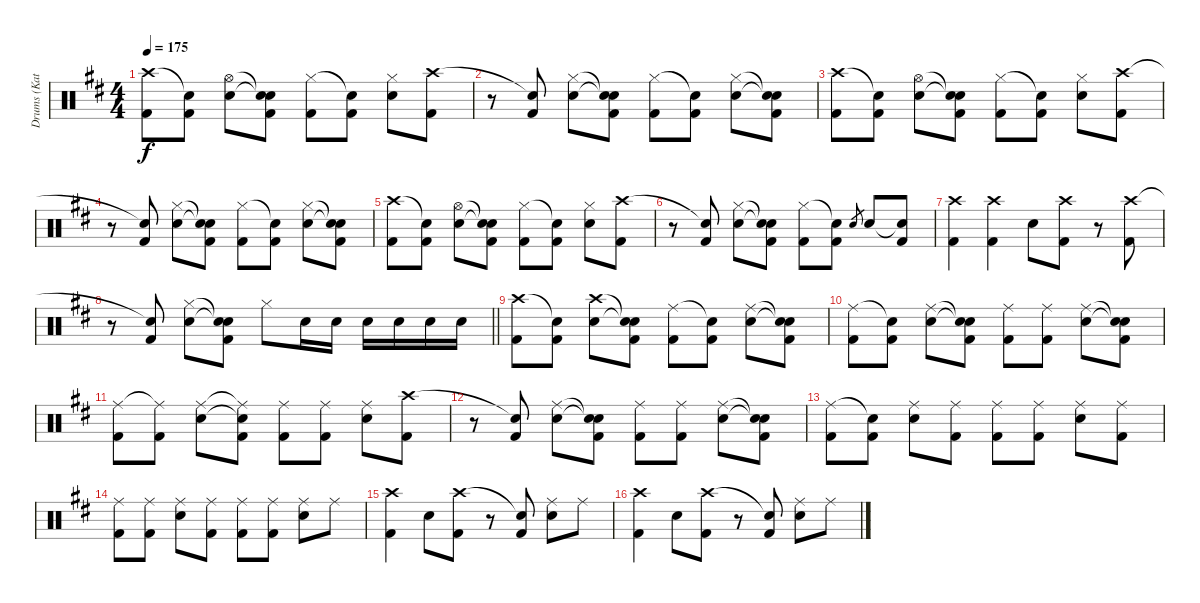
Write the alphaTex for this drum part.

\track ("Drums (Katsuji)" "Drums (Kat") {instrument percussion}
\staff {score}
\articulation defaults
\ts (4 4)
\tempo 175
\clef neutral
\ks d
("Crash high (hit)" "Kick (hit) 2").8{dy f} ("Snare (hit)"{t} "Kick (hit) 2").8 ("Hi-Hat (open)" "Snare (hit) 2").8 ("Snare (hit)"{t} "Snare (hit)"{t} "Kick (hit) 2").8 ("Hi-Hat (closed)" "Kick (hit) 2").8 ("Snare (hit)"{t} "Kick (hit) 2").8 ("Hi-Hat (closed)" "Snare (hit) 2").8 ("Crash high (hit)" "Kick (hit) 2").8 |
r.8 ("Snare (hit)"{t} "Kick (hit) 2").8 ("Hi-Hat (closed)" "Snare (hit) 2").8 ("Snare (hit)"{t} "Snare (hit)"{t} "Kick (hit) 2").8 ("Hi-Hat (closed)" "Kick (hit) 2").8 ("Snare (hit)"{t} "Kick (hit) 2").8 ("Hi-Hat (closed)" "Snare (hit) 2").8 ("Snare (hit)"{t} "Snare (hit)"{t} "Kick (hit) 2").8 |
("Crash high (hit)" "Kick (hit) 2").8 ("Snare (hit)"{t} "Kick (hit) 2").8 ("Hi-Hat (open)" "Snare (hit) 2").8 ("Snare (hit)"{t} "Snare (hit)"{t} "Kick (hit) 2").8 ("Hi-Hat (closed)" "Kick (hit) 2").8 ("Snare (hit)"{t} "Kick (hit) 2").8 ("Hi-Hat (closed)" "Snare (hit) 2").8 ("Crash high (hit)" "Kick (hit) 2").8 |
r.8 ("Snare (hit)"{t} "Kick (hit) 2").8 ("Hi-Hat (closed)" "Snare (hit) 2").8 ("Snare (hit)"{t} "Snare (hit)"{t} "Kick (hit) 2").8 ("Hi-Hat (closed)" "Kick (hit) 2").8 ("Snare (hit)"{t} "Kick (hit) 2").8 ("Hi-Hat (closed)" "Snare (hit) 2").8 ("Snare (hit)"{t} "Snare (hit)"{t} "Kick (hit) 2").8 |
("Crash high (hit)" "Kick (hit) 2").8 ("Snare (hit)"{t} "Kick (hit) 2").8 ("Hi-Hat (open)" "Snare (hit) 2").8 ("Snare (hit)"{t} "Snare (hit)"{t} "Kick (hit) 2").8 ("Hi-Hat (closed)" "Kick (hit) 2").8 ("Snare (hit)"{t} "Kick (hit) 2").8 ("Hi-Hat (closed)" "Snare (hit) 2").8 ("Crash high (hit)" "Kick (hit) 2").8 |
r.8 ("Snare (hit)"{t} "Kick (hit) 2").8 ("Hi-Hat (closed)" "Snare (hit) 2").8 ("Snare (hit)"{t} "Snare (hit)"{t} "Kick (hit) 2").8 ("Hi-Hat (closed)" "Kick (hit) 2").8 ("Snare (hit)"{t} "Kick (hit) 2").8 "Snare (hit) 2".8{gr} "Snare (hit) 2".8 ("Snare (hit) 2"{t} "Kick (hit) 2").8 |
("Crash high (hit)" "Kick (hit) 2").4 ("Crash high (hit)" "Kick (hit) 2").4 "Snare (hit) 2".8 ("Crash high (hit)" "Kick (hit) 2").8 r.8 ("Crash high (hit)" "Kick (hit) 2").8 |
\barLineRight lightlight
r.8 ("Snare (hit)"{t} "Kick (hit) 2").8 ("Hi-Hat (closed)" "Snare (hit) 2").8 ("Snare (hit)"{t} "Snare (hit)"{t} "Kick (hit) 2").8 "Hi-Hat (closed)".8 "Snare (hit) 2".16 "Snare (hit) 2".16 "Snare (hit) 2".16 "Snare (hit) 2".16 "Snare (hit) 2".16 "Snare (hit) 2".16 |
("Crash high (hit)" "Kick (hit) 2").8 ("Snare (hit)"{t} "Kick (hit) 2").8 ("Crash high (hit)" "Snare (hit) 2").8 ("Snare (hit)"{t} "Snare (hit)"{t} "Kick (hit) 2").8 ("Ride (middle)" "Kick (hit) 2").8 ("Snare (hit)"{t} "Kick (hit) 2").8 ("Ride (middle)" "Snare (hit) 2").8 ("Snare (hit)"{t} "Snare (hit)"{t} "Kick (hit) 2").8 |
("Ride (middle)" "Kick (hit) 2").8 ("Snare (hit)"{t} "Kick (hit) 2").8 ("Ride (middle)" "Snare (hit) 2").8 ("Snare (hit)"{t} "Snare (hit)"{t} "Kick (hit) 2").8 ("Ride (middle)" "Kick (hit) 2").8 ("Ride (middle)" "Kick (hit) 2").8 ("Ride (middle)" "Snare (hit) 2").8 ("Snare (hit)"{t} "Snare (hit)"{t} "Kick (hit) 2").8 |
("Ride (middle)" "Kick (hit) 2").8 ("Ride (middle)"{t} "Kick (hit) 2").8 ("Ride (middle)" "Snare (hit) 2").8 ("Ride (middle)"{t} "Snare (hit)"{t} "Kick (hit) 2").8 ("Ride (middle)" "Kick (hit) 2").8 ("Ride (middle)" "Kick (hit) 2").8 ("Ride (middle)" "Snare (hit) 2").8 ("Crash high (hit)" "Kick (hit) 2").8 |
r.8 ("Snare (hit)"{t} "Kick (hit) 2").8 ("Ride (middle)" "Snare (hit) 2").8 ("Snare (hit)"{t} "Snare (hit)"{t} "Kick (hit) 2").8 ("Ride (middle)" "Kick (hit) 2").8 ("Ride (middle)" "Kick (hit) 2").8 ("Ride (middle)" "Snare (hit) 2").8 ("Snare (hit)"{t} "Snare (hit)"{t} "Kick (hit) 2").8 |
("Ride (middle)" "Kick (hit) 2").8 ("Snare (hit)"{t} "Kick (hit) 2").8 ("Ride (middle)" "Snare (hit) 2").8 ("Ride (middle)" "Kick (hit) 2").8 ("Ride (middle)" "Kick (hit) 2").8 ("Ride (middle)" "Kick (hit) 2").8 ("Ride (middle)" "Snare (hit) 2").8 ("Ride (middle)" "Kick (hit) 2").8 |
("Ride (middle)" "Kick (hit) 2").8 ("Ride (middle)" "Kick (hit) 2").8 ("Ride (middle)" "Snare (hit) 2").8 ("Ride (middle)" "Kick (hit) 2").8 ("Ride (middle)" "Kick (hit) 2").8 ("Ride (middle)" "Kick (hit) 2").8 ("Ride (middle)" "Snare (hit) 2").8 "Ride (middle)".8 |
("Crash high (hit)" "Kick (hit) 2").4 "Snare (hit) 2".8 ("Crash high (hit)" "Kick (hit) 2").8 r.8 ("Snare (hit)"{t} "Kick (hit) 2").8 ("Ride (middle)" "Snare (hit) 2").8 "Ride (middle)".8 |
("Crash high (hit)" "Kick (hit) 2").4 "Snare (hit) 2".8 ("Crash high (hit)" "Kick (hit) 2").8 r.8 ("Snare (hit)"{t} "Kick (hit) 2").8 ("Ride (middle)" "Snare (hit) 2").8 "Ride (middle)".8
